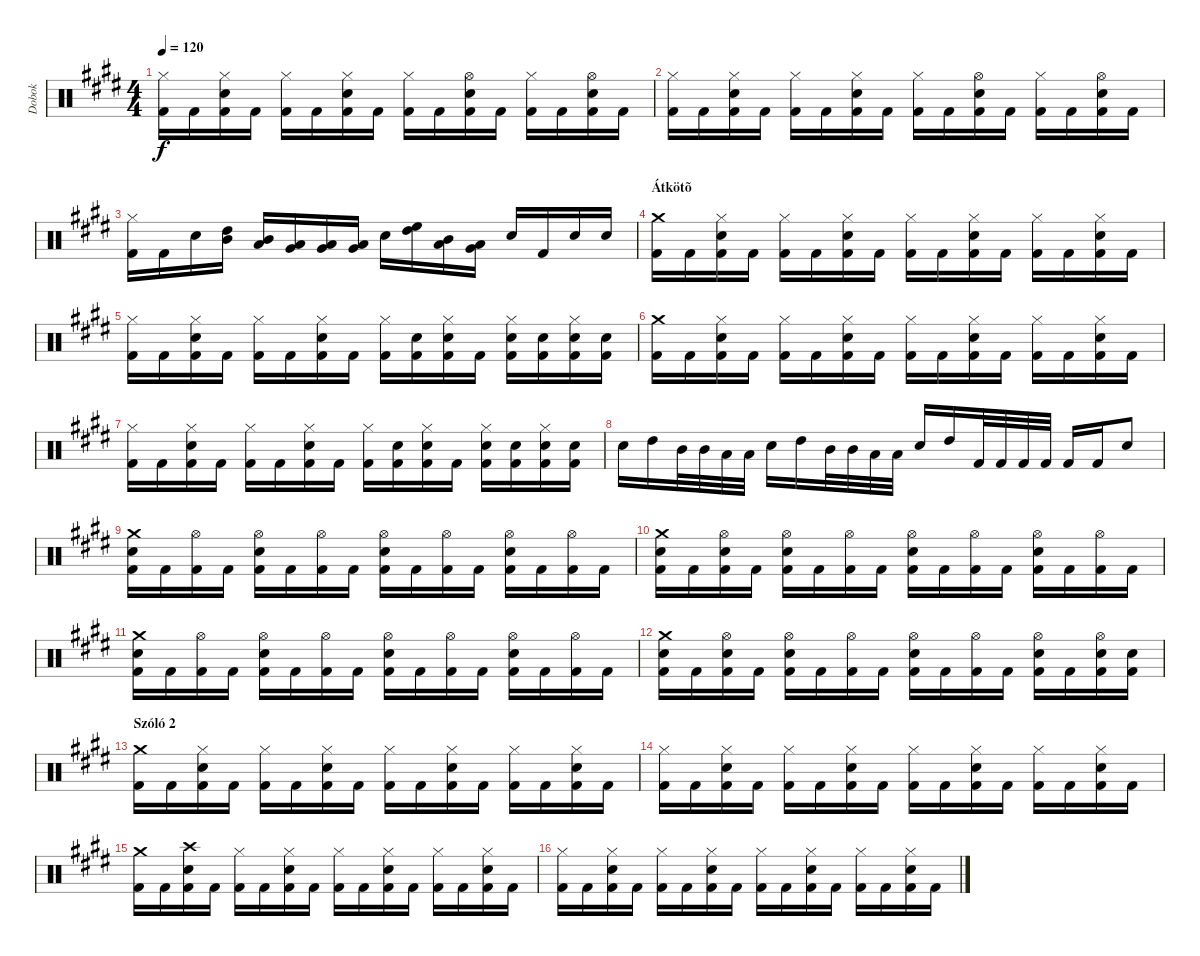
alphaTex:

\track ("Dobok" "Dobok") {instrument percussion}
\staff {score}
\articulation defaults
\ts (4 4)
\tempo 120
\clef neutral
\ks c#minor
("Hi-Hat (closed)" "Kick (hit) 2").16{dy f} "Kick (hit) 2".16 ("Hi-Hat (closed)" "Snare (hit) 2" "Kick (hit) 2").16 "Kick (hit) 2".16 ("Hi-Hat (closed)" "Kick (hit) 2").16 "Kick (hit) 2".16 ("Hi-Hat (closed)" "Snare (hit) 2" "Kick (hit) 2").16 "Kick (hit) 2".16 ("Hi-Hat (closed)" "Kick (hit) 2").16 "Kick (hit) 2".16 ("Hi-Hat (open)" "Snare (hit) 2" "Kick (hit) 2").16 "Kick (hit) 2".16 ("Hi-Hat (closed)" "Kick (hit) 2").16 "Kick (hit) 2".16 ("Hi-Hat (open)" "Snare (hit) 2" "Kick (hit) 2").16 "Kick (hit) 2".16 |
("Hi-Hat (closed)" "Kick (hit) 2").16 "Kick (hit) 2".16 ("Hi-Hat (closed)" "Snare (hit) 2" "Kick (hit) 2").16 "Kick (hit) 2".16 ("Hi-Hat (closed)" "Kick (hit) 2").16 "Kick (hit) 2".16 ("Hi-Hat (closed)" "Snare (hit) 2" "Kick (hit) 2").16 "Kick (hit) 2".16 ("Hi-Hat (closed)" "Kick (hit) 2").16 "Kick (hit) 2".16 ("Hi-Hat (open)" "Snare (hit) 2" "Kick (hit) 2").16 "Kick (hit) 2".16 ("Hi-Hat (closed)" "Kick (hit) 2").16 "Kick (hit) 2".16 ("Hi-Hat (open)" "Snare (hit) 2" "Kick (hit) 2").16 "Kick (hit) 2".16 |
("Hi-Hat (closed)" "Kick (hit) 2").16 "Kick (hit) 2".16 "Snare (hit) 2".16 ("High Tom (hit)" "Mid Tom (hit)").16 ("Mid Tom (hit)" "Low Tom (hit)").16 ("Low Tom (hit)" "Very Low Tom (hit)").16 ("Very Low Tom (hit)" "Low Floor Tom (hit)").16 ("Very Low Tom (hit)" "Low Floor Tom (hit)").16 "Snare (hit) 2".16 ("High Tom (hit)" "High Floor Tom (hit)").16 ("Low Tom (hit)" "Mid Tom (hit)").16 ("Very Low Tom (hit)" "Low Tom (hit)").16 "Snare (hit) 2".16 "Kick (hit) 2".16 "Snare (hit) 2".16 "Snare (hit) 2".16 |
\section ("" "Átkötõ")
("Crash medium (hit)" "Kick (hit) 2").16 "Kick (hit) 2".16 ("Hi-Hat (closed)" "Snare (hit) 2" "Kick (hit) 2").16 "Kick (hit) 2".16 ("Hi-Hat (closed)" "Kick (hit) 2").16 "Kick (hit) 2".16 ("Hi-Hat (closed)" "Snare (hit) 2" "Kick (hit) 2").16 "Kick (hit) 2".16 ("Hi-Hat (closed)" "Kick (hit) 2").16 "Kick (hit) 2".16 ("Hi-Hat (closed)" "Snare (hit) 2" "Kick (hit) 2").16 "Kick (hit) 2".16 ("Hi-Hat (closed)" "Kick (hit) 2").16 "Kick (hit) 2".16 ("Hi-Hat (closed)" "Snare (hit) 2" "Kick (hit) 2").16 "Kick (hit) 2".16 |
("Hi-Hat (closed)" "Kick (hit) 2").16 "Kick (hit) 2".16 ("Hi-Hat (closed)" "Snare (hit) 2" "Kick (hit) 2").16 "Kick (hit) 2".16 ("Hi-Hat (closed)" "Kick (hit) 2").16 "Kick (hit) 2".16 ("Hi-Hat (closed)" "Snare (hit) 2" "Kick (hit) 2").16 "Kick (hit) 2".16 ("Hi-Hat (closed)" "Kick (hit) 2").16 ("Snare (hit) 2" "Kick (hit) 2").16 ("Hi-Hat (closed)" "Snare (hit) 2" "Kick (hit) 2").16 "Kick (hit) 2".16 ("Hi-Hat (closed)" "Snare (hit) 2" "Kick (hit) 2").16 ("Snare (hit) 2" "Kick (hit) 2").16 ("Hi-Hat (closed)" "Snare (hit) 2" "Kick (hit) 2").16 ("Snare (hit) 2" "Kick (hit) 2").16 |
("Crash medium (hit)" "Kick (hit) 2").16 "Kick (hit) 2".16 ("Hi-Hat (closed)" "Snare (hit) 2" "Kick (hit) 2").16 "Kick (hit) 2".16 ("Hi-Hat (closed)" "Kick (hit) 2").16 "Kick (hit) 2".16 ("Hi-Hat (closed)" "Snare (hit) 2" "Kick (hit) 2").16 "Kick (hit) 2".16 ("Hi-Hat (closed)" "Kick (hit) 2").16 "Kick (hit) 2".16 ("Hi-Hat (closed)" "Snare (hit) 2" "Kick (hit) 2").16 "Kick (hit) 2".16 ("Hi-Hat (closed)" "Kick (hit) 2").16 "Kick (hit) 2".16 ("Hi-Hat (closed)" "Snare (hit) 2" "Kick (hit) 2").16 "Kick (hit) 2".16 |
("Hi-Hat (closed)" "Kick (hit) 2").16 "Kick (hit) 2".16 ("Hi-Hat (closed)" "Snare (hit) 2" "Kick (hit) 2").16 "Kick (hit) 2".16 ("Hi-Hat (closed)" "Kick (hit) 2").16 "Kick (hit) 2".16 ("Hi-Hat (closed)" "Snare (hit) 2" "Kick (hit) 2").16 "Kick (hit) 2".16 ("Hi-Hat (closed)" "Kick (hit) 2").16 ("Snare (hit) 2" "Kick (hit) 2").16 ("Hi-Hat (closed)" "Snare (hit) 2" "Kick (hit) 2").16 "Kick (hit) 2".16 ("Hi-Hat (closed)" "Snare (hit) 2" "Kick (hit) 2").16 ("Snare (hit) 2" "Kick (hit) 2").16 ("Hi-Hat (closed)" "Snare (hit) 2" "Kick (hit) 2").16 ("Snare (hit) 2" "Kick (hit) 2").16 |
"Snare (hit) 2".16 "High Tom (hit)".16 "Mid Tom (hit)".32 "Mid Tom (hit)".32 "Low Tom (hit)".32 "Low Tom (hit)".32 "Snare (hit) 2".16 "High Tom (hit)".16 "Mid Tom (hit)".32 "Mid Tom (hit)".32 "Low Tom (hit)".32 "Low Tom (hit)".32 "Snare (hit) 2".16 "High Tom (hit)".16 "Kick (hit) 2".32 "Kick (hit) 2".32 "Kick (hit) 2".32 "Kick (hit) 2".32 "Kick (hit) 2".16 "Kick (hit) 2".16 "Snare (hit) 2".8 |
("Crash medium (hit)" "Snare (hit) 2" "Kick (hit) 2").16 "Kick (hit) 2".16 ("Hi-Hat (open)" "Kick (hit) 2").16 "Kick (hit) 2".16 ("Hi-Hat (open)" "Snare (hit) 2" "Kick (hit) 2").16 "Kick (hit) 2".16 ("Hi-Hat (open)" "Kick (hit) 2").16 "Kick (hit) 2".16 ("Hi-Hat (open)" "Snare (hit) 2" "Kick (hit) 2").16 "Kick (hit) 2".16 ("Hi-Hat (open)" "Kick (hit) 2").16 "Kick (hit) 2".16 ("Hi-Hat (open)" "Snare (hit) 2" "Kick (hit) 2").16 "Kick (hit) 2".16 ("Hi-Hat (open)" "Kick (hit) 2").16 "Kick (hit) 2".16 |
("Crash medium (hit)" "Snare (hit) 2" "Kick (hit) 2").16 "Kick (hit) 2".16 ("Hi-Hat (open)" "Snare (hit) 2" "Kick (hit) 2").16 "Kick (hit) 2".16 ("Hi-Hat (open)" "Snare (hit) 2" "Kick (hit) 2").16 "Kick (hit) 2".16 ("Hi-Hat (open)" "Kick (hit) 2").16 "Kick (hit) 2".16 ("Hi-Hat (open)" "Snare (hit) 2" "Kick (hit) 2").16 "Kick (hit) 2".16 ("Hi-Hat (open)" "Kick (hit) 2").16 "Kick (hit) 2".16 ("Hi-Hat (open)" "Snare (hit) 2" "Kick (hit) 2").16 "Kick (hit) 2".16 ("Hi-Hat (open)" "Kick (hit) 2").16 "Kick (hit) 2".16 |
("Crash medium (hit)" "Snare (hit) 2" "Kick (hit) 2").16 "Kick (hit) 2".16 ("Hi-Hat (open)" "Kick (hit) 2").16 "Kick (hit) 2".16 ("Hi-Hat (open)" "Snare (hit) 2" "Kick (hit) 2").16 "Kick (hit) 2".16 ("Hi-Hat (open)" "Kick (hit) 2").16 "Kick (hit) 2".16 ("Hi-Hat (open)" "Snare (hit) 2" "Kick (hit) 2").16 "Kick (hit) 2".16 ("Hi-Hat (open)" "Kick (hit) 2").16 "Kick (hit) 2".16 ("Hi-Hat (open)" "Snare (hit) 2" "Kick (hit) 2").16 "Kick (hit) 2".16 ("Hi-Hat (open)" "Kick (hit) 2").16 "Kick (hit) 2".16 |
("Crash medium (hit)" "Snare (hit) 2" "Kick (hit) 2").16 "Kick (hit) 2".16 ("Hi-Hat (open)" "Snare (hit) 2" "Kick (hit) 2").16 "Kick (hit) 2".16 ("Hi-Hat (open)" "Snare (hit) 2" "Kick (hit) 2").16 "Kick (hit) 2".16 ("Hi-Hat (open)" "Kick (hit) 2").16 "Kick (hit) 2".16 ("Hi-Hat (open)" "Snare (hit) 2" "Kick (hit) 2").16 "Kick (hit) 2".16 ("Hi-Hat (open)" "Kick (hit) 2").16 "Kick (hit) 2".16 ("Hi-Hat (open)" "Snare (hit) 2" "Kick (hit) 2").16 "Kick (hit) 2".16 ("Hi-Hat (open)" "Snare (hit) 2" "Kick (hit) 2").16 ("Snare (hit) 2" "Kick (hit) 2").16 |
\section ("" "Szóló 2")
("Crash medium (hit)" "Kick (hit) 2").16 "Kick (hit) 2".16 ("Hi-Hat (closed)" "Snare (hit) 2" "Kick (hit) 2").16 "Kick (hit) 2".16 ("Hi-Hat (closed)" "Kick (hit) 2").16 "Kick (hit) 2".16 ("Hi-Hat (closed)" "Snare (hit) 2" "Kick (hit) 2").16 "Kick (hit) 2".16 ("Hi-Hat (closed)" "Kick (hit) 2").16 "Kick (hit) 2".16 ("Hi-Hat (closed)" "Snare (hit) 2" "Kick (hit) 2").16 "Kick (hit) 2".16 ("Hi-Hat (closed)" "Kick (hit) 2").16 "Kick (hit) 2".16 ("Hi-Hat (closed)" "Snare (hit) 2" "Kick (hit) 2").16 "Kick (hit) 2".16 |
("Hi-Hat (closed)" "Kick (hit) 2").16 "Kick (hit) 2".16 ("Hi-Hat (closed)" "Snare (hit) 2" "Kick (hit) 2").16 "Kick (hit) 2".16 ("Hi-Hat (closed)" "Kick (hit) 2").16 "Kick (hit) 2".16 ("Hi-Hat (closed)" "Snare (hit) 2" "Kick (hit) 2").16 "Kick (hit) 2".16 ("Hi-Hat (closed)" "Kick (hit) 2").16 "Kick (hit) 2".16 ("Hi-Hat (closed)" "Snare (hit) 2" "Kick (hit) 2").16 "Kick (hit) 2".16 ("Hi-Hat (closed)" "Kick (hit) 2").16 "Kick (hit) 2".16 ("Hi-Hat (closed)" "Snare (hit) 2" "Kick (hit) 2").16 "Kick (hit) 2".16 |
("Crash medium (hit)" "Kick (hit) 2").16 "Kick (hit) 2".16 ("Crash high (hit)" "Snare (hit) 2" "Kick (hit) 2").16 "Kick (hit) 2".16 ("Hi-Hat (closed)" "Kick (hit) 2").16 "Kick (hit) 2".16 ("Hi-Hat (closed)" "Snare (hit) 2" "Kick (hit) 2").16 "Kick (hit) 2".16 ("Hi-Hat (closed)" "Kick (hit) 2").16 "Kick (hit) 2".16 ("Hi-Hat (closed)" "Snare (hit) 2" "Kick (hit) 2").16 "Kick (hit) 2".16 ("Hi-Hat (closed)" "Kick (hit) 2").16 "Kick (hit) 2".16 ("Hi-Hat (closed)" "Snare (hit) 2" "Kick (hit) 2").16 "Kick (hit) 2".16 |
("Hi-Hat (closed)" "Kick (hit) 2").16 "Kick (hit) 2".16 ("Hi-Hat (closed)" "Snare (hit) 2" "Kick (hit) 2").16 "Kick (hit) 2".16 ("Hi-Hat (closed)" "Kick (hit) 2").16 "Kick (hit) 2".16 ("Hi-Hat (closed)" "Snare (hit) 2" "Kick (hit) 2").16 "Kick (hit) 2".16 ("Hi-Hat (closed)" "Kick (hit) 2").16 "Kick (hit) 2".16 ("Hi-Hat (closed)" "Snare (hit) 2" "Kick (hit) 2").16 "Kick (hit) 2".16 ("Hi-Hat (closed)" "Kick (hit) 2").16 "Kick (hit) 2".16 ("Hi-Hat (closed)" "Snare (hit) 2" "Kick (hit) 2").16 "Kick (hit) 2".16
